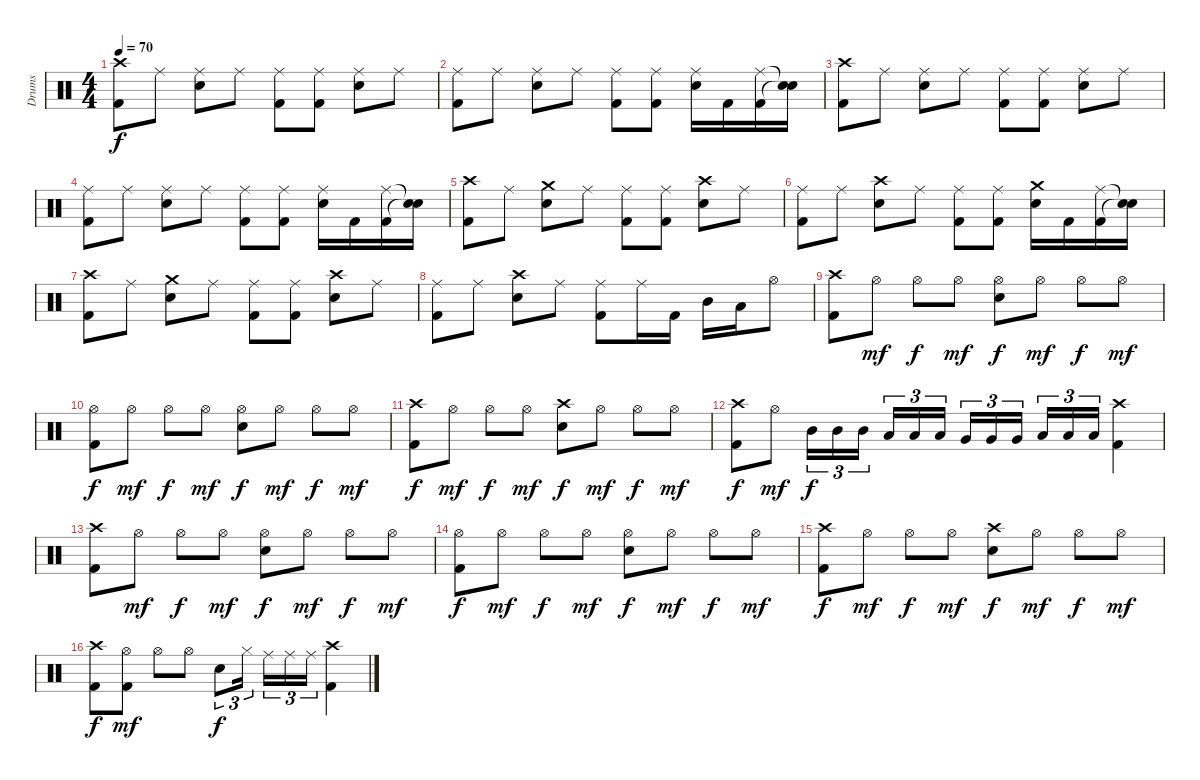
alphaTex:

\track ("Drums" "Drums") {instrument percussion}
\staff {score}
\articulation defaults
\ts (4 4)
\tempo 70
\clef neutral
\ks c
("Crash high (hit)" "Kick (hit) 2").8{dy f} "Ride (middle)".8 ("Ride (middle)" "Snare (hit) 2").8 "Ride (middle)".8 ("Ride (middle)" "Kick (hit) 2").8 ("Ride (middle)" "Kick (hit) 2").8 ("Ride (middle)" "Snare (hit) 2").8 "Ride (middle)".8 |
("Ride (middle)" "Kick (hit) 2").8 "Ride (middle)".8 ("Ride (middle)" "Snare (hit) 2").8 "Ride (middle)".8 ("Ride (middle)" "Kick (hit) 2").8 ("Ride (middle)" "Kick (hit) 2").8 ("Ride (middle)" "Snare (hit) 2").16 "Kick (hit) 2".16 ("Ride (middle)" "Kick (hit) 2").16 ("Snare (hit)"{t} "Snare (hit)"{t}).16 |
("Crash high (hit)" "Kick (hit) 2").8 "Ride (middle)".8 ("Ride (middle)" "Snare (hit) 2").8 "Ride (middle)".8 ("Ride (middle)" "Kick (hit) 2").8 ("Ride (middle)" "Kick (hit) 2").8 ("Ride (middle)" "Snare (hit) 2").8 "Ride (middle)".8 |
("Ride (middle)" "Kick (hit) 2").8 "Ride (middle)".8 ("Ride (middle)" "Snare (hit) 2").8 "Ride (middle)".8 ("Ride (middle)" "Kick (hit) 2").8 ("Ride (middle)" "Kick (hit) 2").8 ("Ride (middle)" "Snare (hit) 2").16 "Kick (hit) 2".16 ("Ride (middle)" "Kick (hit) 2").16 ("Snare (hit)"{t} "Snare (hit)"{t}).16 |
("Crash high (hit)" "Kick (hit) 2").8 "Ride (middle)".8 ("Crash medium (hit)" "Snare (hit) 2").8 "Ride (middle)".8 ("Ride (middle)" "Kick (hit) 2").8 ("Ride (middle)" "Kick (hit) 2").8 ("Crash high (hit)" "Snare (hit) 2").8 "Ride (middle)".8 |
("Ride (middle)" "Kick (hit) 2").8 "Ride (middle)".8 ("Crash high (hit)" "Snare (hit) 2").8 "Ride (middle)".8 ("Ride (middle)" "Kick (hit) 2").8 ("Ride (middle)" "Kick (hit) 2").8 ("Crash medium (hit)" "Snare (hit) 2").16 "Kick (hit) 2".16 ("Ride (middle)" "Kick (hit) 2").16 ("Snare (hit)"{t} "Snare (hit)"{t}).16 |
("Crash high (hit)" "Kick (hit) 2").8 "Ride (middle)".8 ("Crash medium (hit)" "Snare (hit) 2").8 "Ride (middle)".8 ("Ride (middle)" "Kick (hit) 2").8 ("Ride (middle)" "Kick (hit) 2").8 ("Crash high (hit)" "Snare (hit) 2").8 "Ride (middle)".8 |
("Ride (middle)" "Kick (hit) 2").8 "Ride (middle)".8 ("Crash high (hit)" "Snare (hit) 2").8 "Ride (middle)".8 ("Ride (middle)" "Kick (hit) 2").8 "Ride (middle)".16 "Kick (hit) 2".16 "Mid Tom (hit)".16 "Low Tom (hit)".16 "Hi-Hat (open)".8 |
("Crash high (hit)" "Kick (hit) 2").8 "Hi-Hat (open)".8{dy mf} "Hi-Hat (open)".8{dy f} "Hi-Hat (open)".8{dy mf} ("Hi-Hat (open)" "Snare (hit) 2").8{dy f} "Hi-Hat (open)".8{dy mf} "Hi-Hat (open)".8{dy f} "Hi-Hat (open)".8{dy mf} |
("Hi-Hat (open)" "Kick (hit) 2").8{dy f} "Hi-Hat (open)".8{dy mf} "Hi-Hat (open)".8{dy f} "Hi-Hat (open)".8{dy mf} ("Hi-Hat (open)" "Snare (hit) 2").8{dy f} "Hi-Hat (open)".8{dy mf} "Hi-Hat (open)".8{dy f} "Hi-Hat (open)".8{dy mf} |
("Crash high (hit)" "Kick (hit) 2").8{dy f} "Hi-Hat (open)".8{dy mf} "Hi-Hat (open)".8{dy f} "Hi-Hat (open)".8{dy mf} ("Crash high (hit)" "Snare (hit) 2").8{dy f} "Hi-Hat (open)".8{dy mf} "Hi-Hat (open)".8{dy f} "Hi-Hat (open)".8{dy mf} |
("Crash high (hit)" "Kick (hit) 2").8{dy f} "Hi-Hat (open)".8{dy mf} "Mid Tom (hit)".16{tu (3 2) dy f} "Mid Tom (hit)".16{tu (3 2)} "Mid Tom (hit)".16{tu (3 2)} "Low Tom (hit)".16{tu (3 2)} "Low Tom (hit)".16{tu (3 2)} "Low Tom (hit)".16{tu (3 2)} "Very Low Tom (hit)".16{tu (3 2)} "Very Low Tom (hit)".16{tu (3 2)} "Very Low Tom (hit)".16{tu (3 2)} "Low Floor Tom (hit)".16{tu (3 2)} "Low Floor Tom (hit)".16{tu (3 2)} "Low Floor Tom (hit)".16{tu (3 2)} ("Crash high (hit)" "Kick (hit) 2").4 |
("Crash high (hit)" "Kick (hit) 2").8 "Hi-Hat (open)".8{dy mf} "Hi-Hat (open)".8{dy f} "Hi-Hat (open)".8{dy mf} ("Hi-Hat (open)" "Snare (hit) 2").8{dy f} "Hi-Hat (open)".8{dy mf} "Hi-Hat (open)".8{dy f} "Hi-Hat (open)".8{dy mf} |
("Hi-Hat (open)" "Kick (hit) 2").8{dy f} "Hi-Hat (open)".8{dy mf} "Hi-Hat (open)".8{dy f} "Hi-Hat (open)".8{dy mf} ("Hi-Hat (open)" "Snare (hit) 2").8{dy f} "Hi-Hat (open)".8{dy mf} "Hi-Hat (open)".8{dy f} "Hi-Hat (open)".8{dy mf} |
("Crash high (hit)" "Kick (hit) 2").8{dy f} "Hi-Hat (open)".8{dy mf} "Hi-Hat (open)".8{dy f} "Hi-Hat (open)".8{dy mf} ("Crash high (hit)" "Snare (hit) 2").8{dy f} "Hi-Hat (open)".8{dy mf} "Hi-Hat (open)".8{dy f} "Hi-Hat (open)".8{dy mf} |
("Crash high (hit)" "Kick (hit) 2").8{dy f} ("Hi-Hat (open)" "Kick (hit) 2").8{dy mf} "Hi-Hat (open)".8 "Hi-Hat (open)".8 "Snare (hit) 2".8{tu (3 2) dy f} "Hi-Hat (closed)".16{tu (3 2)} "Ride (middle)".16{tu (3 2)} "Ride (middle)".16{tu (3 2)} "Ride (middle)".16{tu (3 2)} ("Crash high (hit)" "Kick (hit) 2").4
